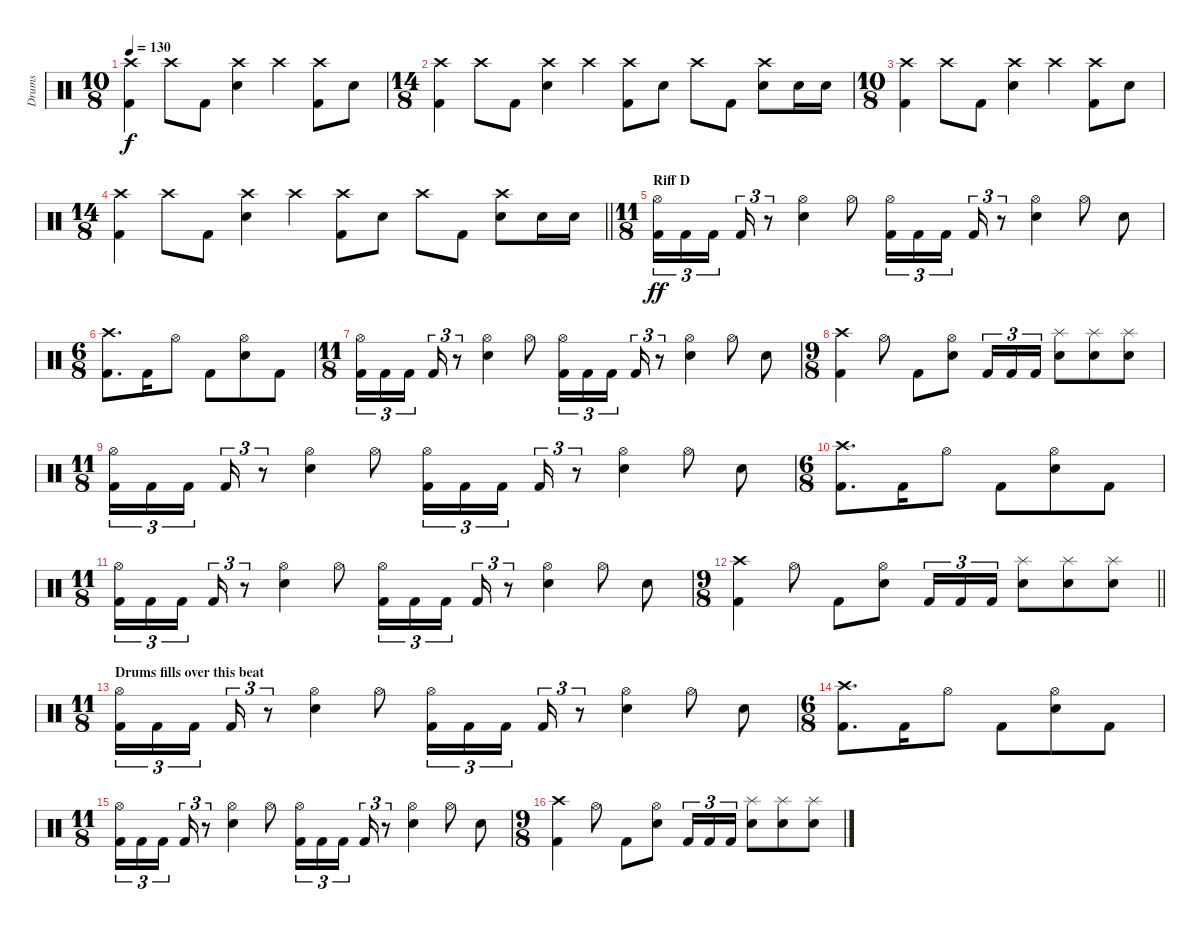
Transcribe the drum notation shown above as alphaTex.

\track ("Drums" "Drums") {instrument percussion}
\staff {score}
\articulation defaults
\ts (10 8)
\tempo 130
\clef neutral
\ks c
("Kick (hit) 2" "Crash high (hit)").4{dy f} "Crash high (hit)".8 "Kick (hit) 2".8 ("Crash high (hit)" "Snare (hit) 2").4 "Crash high (hit)".4 ("Crash high (hit)" "Kick (hit) 2").8 "Snare (hit) 2".8 |
\ts (14 8)
("Kick (hit) 2" "Crash high (hit)").4 "Crash high (hit)".8 "Kick (hit) 2".8 ("Crash high (hit)" "Snare (hit) 2").4 "Crash high (hit)".4 ("Crash high (hit)" "Kick (hit) 2").8 "Snare (hit) 2".8 "Crash high (hit)".8 "Kick (hit) 2".8 ("Snare (hit) 2" "Crash high (hit)").8 "Snare (hit) 2".16 "Snare (hit) 2".16 |
\ts (10 8)
("Kick (hit) 2" "Crash high (hit)").4 "Crash high (hit)".8 "Kick (hit) 2".8 ("Crash high (hit)" "Snare (hit) 2").4 "Crash high (hit)".4 ("Crash high (hit)" "Kick (hit) 2").8 "Snare (hit) 2".8 |
\ts (14 8)
\barLineRight lightlight
("Kick (hit) 2" "Crash high (hit)").4 "Crash high (hit)".8 "Kick (hit) 2".8 ("Crash high (hit)" "Snare (hit) 2").4 "Crash high (hit)".4 ("Crash high (hit)" "Kick (hit) 2").8 "Snare (hit) 2".8 "Crash high (hit)".8 "Kick (hit) 2".8 ("Snare (hit) 2" "Crash high (hit)").8 "Snare (hit) 2".16 "Snare (hit) 2".16 |
\ts (11 8)
\section ("" "Riff D")
("Kick (hit) 2" "Hi-Hat (open)").16{tu (3 2) dy ff} "Kick (hit) 2".16{tu (3 2)} "Kick (hit) 2".16{tu (3 2)} "Kick (hit) 2".16{tu (3 2)} r.8{tu (3 2)} ("Hi-Hat (open)" "Snare (hit) 2").4 "Hi-Hat (open)".8 ("Kick (hit) 2" "Hi-Hat (open)").16{tu (3 2)} "Kick (hit) 2".16{tu (3 2)} "Kick (hit) 2".16{tu (3 2)} "Kick (hit) 2".16{tu (3 2)} r.8{tu (3 2)} ("Hi-Hat (open)" "Snare (hit) 2").4 "Hi-Hat (open)".8 "Snare (hit) 2".8 |
\ts (6 8)
("Crash high (hit)" "Kick (hit) 2").8{d} "Kick (hit) 2".16 "Hi-Hat (open)".8 "Kick (hit) 2".8 ("Snare (hit) 2" "Hi-Hat (open)").8 "Kick (hit) 2".8 |
\ts (11 8)
("Kick (hit) 2" "Hi-Hat (open)").16{tu (3 2)} "Kick (hit) 2".16{tu (3 2)} "Kick (hit) 2".16{tu (3 2)} "Kick (hit) 2".16{tu (3 2)} r.8{tu (3 2)} ("Hi-Hat (open)" "Snare (hit) 2").4 "Hi-Hat (open)".8 ("Kick (hit) 2" "Hi-Hat (open)").16{tu (3 2)} "Kick (hit) 2".16{tu (3 2)} "Kick (hit) 2".16{tu (3 2)} "Kick (hit) 2".16{tu (3 2)} r.8{tu (3 2)} ("Hi-Hat (open)" "Snare (hit) 2").4 "Hi-Hat (open)".8 "Snare (hit) 2".8 |
\ts (9 8)
("Crash high (hit)" "Kick (hit) 2").4 "Hi-Hat (open)".8 "Kick (hit) 2".8 ("Hi-Hat (open)" "Snare (hit) 2").8 "Kick (hit) 2".16{tu (3 2)} "Kick (hit) 2".16{tu (3 2)} "Kick (hit) 2".16{tu (3 2)} ("Snare (hit) 2" "Splash (hit)").8 ("Snare (hit) 2" "Splash (hit)").8 ("Snare (hit) 2" "Splash (hit)").8 |
\ts (11 8)
("Kick (hit) 2" "Hi-Hat (open)").16{tu (3 2)} "Kick (hit) 2".16{tu (3 2)} "Kick (hit) 2".16{tu (3 2)} "Kick (hit) 2".16{tu (3 2)} r.8{tu (3 2)} ("Hi-Hat (open)" "Snare (hit) 2").4 "Hi-Hat (open)".8 ("Kick (hit) 2" "Hi-Hat (open)").16{tu (3 2)} "Kick (hit) 2".16{tu (3 2)} "Kick (hit) 2".16{tu (3 2)} "Kick (hit) 2".16{tu (3 2)} r.8{tu (3 2)} ("Hi-Hat (open)" "Snare (hit) 2").4 "Hi-Hat (open)".8 "Snare (hit) 2".8 |
\ts (6 8)
("Crash high (hit)" "Kick (hit) 2").8{d} "Kick (hit) 2".16 "Hi-Hat (open)".8 "Kick (hit) 2".8 ("Snare (hit) 2" "Hi-Hat (open)").8 "Kick (hit) 2".8 |
\ts (11 8)
("Kick (hit) 2" "Hi-Hat (open)").16{tu (3 2)} "Kick (hit) 2".16{tu (3 2)} "Kick (hit) 2".16{tu (3 2)} "Kick (hit) 2".16{tu (3 2)} r.8{tu (3 2)} ("Hi-Hat (open)" "Snare (hit) 2").4 "Hi-Hat (open)".8 ("Kick (hit) 2" "Hi-Hat (open)").16{tu (3 2)} "Kick (hit) 2".16{tu (3 2)} "Kick (hit) 2".16{tu (3 2)} "Kick (hit) 2".16{tu (3 2)} r.8{tu (3 2)} ("Hi-Hat (open)" "Snare (hit) 2").4 "Hi-Hat (open)".8 "Snare (hit) 2".8 |
\ts (9 8)
\barLineRight lightlight
("Crash high (hit)" "Kick (hit) 2").4 "Hi-Hat (open)".8 "Kick (hit) 2".8 ("Hi-Hat (open)" "Snare (hit) 2").8 "Kick (hit) 2".16{tu (3 2)} "Kick (hit) 2".16{tu (3 2)} "Kick (hit) 2".16{tu (3 2)} ("Snare (hit) 2" "Splash (hit)").8 ("Snare (hit) 2" "Splash (hit)").8 ("Snare (hit) 2" "Splash (hit)").8 |
\ts (11 8)
\section ("" "Drums fills over this beat")
("Kick (hit) 2" "Hi-Hat (open)").16{tu (3 2)} "Kick (hit) 2".16{tu (3 2)} "Kick (hit) 2".16{tu (3 2)} "Kick (hit) 2".16{tu (3 2)} r.8{tu (3 2)} ("Hi-Hat (open)" "Snare (hit) 2").4 "Hi-Hat (open)".8 ("Kick (hit) 2" "Hi-Hat (open)").16{tu (3 2)} "Kick (hit) 2".16{tu (3 2)} "Kick (hit) 2".16{tu (3 2)} "Kick (hit) 2".16{tu (3 2)} r.8{tu (3 2)} ("Hi-Hat (open)" "Snare (hit) 2").4 "Hi-Hat (open)".8 "Snare (hit) 2".8 |
\ts (6 8)
("Crash high (hit)" "Kick (hit) 2").8{d} "Kick (hit) 2".16 "Hi-Hat (open)".8 "Kick (hit) 2".8 ("Snare (hit) 2" "Hi-Hat (open)").8 "Kick (hit) 2".8 |
\ts (11 8)
("Kick (hit) 2" "Hi-Hat (open)").16{tu (3 2)} "Kick (hit) 2".16{tu (3 2)} "Kick (hit) 2".16{tu (3 2)} "Kick (hit) 2".16{tu (3 2)} r.8{tu (3 2)} ("Hi-Hat (open)" "Snare (hit) 2").4 "Hi-Hat (open)".8 ("Kick (hit) 2" "Hi-Hat (open)").16{tu (3 2)} "Kick (hit) 2".16{tu (3 2)} "Kick (hit) 2".16{tu (3 2)} "Kick (hit) 2".16{tu (3 2)} r.8{tu (3 2)} ("Hi-Hat (open)" "Snare (hit) 2").4 "Hi-Hat (open)".8 "Snare (hit) 2".8 |
\ts (9 8)
("Crash high (hit)" "Kick (hit) 2").4 "Hi-Hat (open)".8 "Kick (hit) 2".8 ("Hi-Hat (open)" "Snare (hit) 2").8 "Kick (hit) 2".16{tu (3 2)} "Kick (hit) 2".16{tu (3 2)} "Kick (hit) 2".16{tu (3 2)} ("Snare (hit) 2" "Splash (hit)").8 ("Snare (hit) 2" "Splash (hit)").8 ("Snare (hit) 2" "Splash (hit)").8
